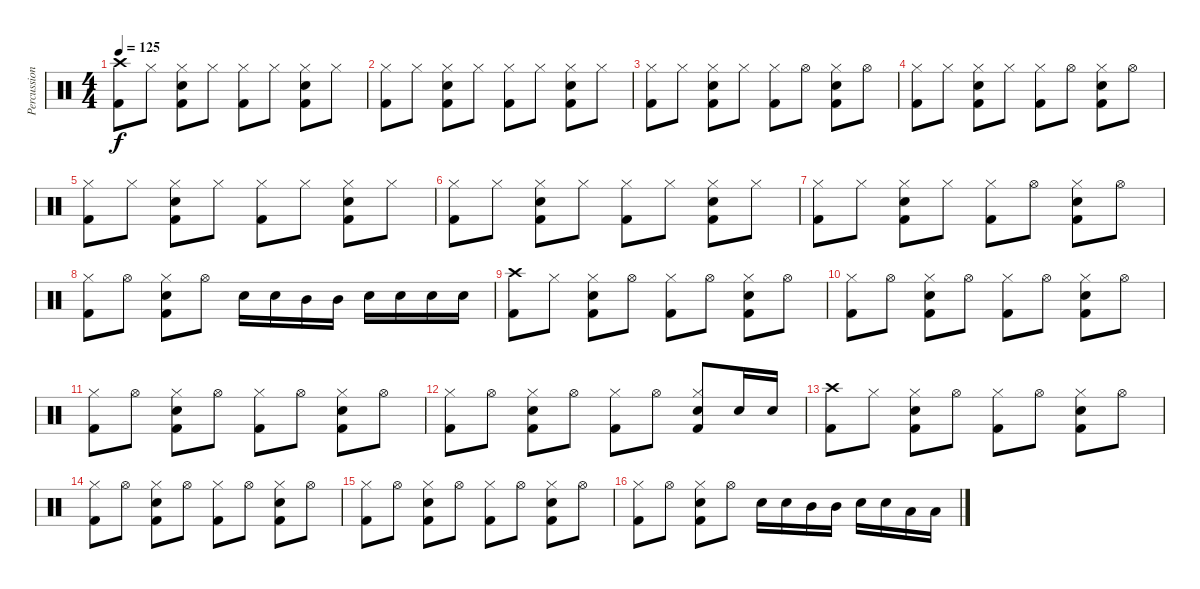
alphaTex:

\track ("Percussion" "Percussion") {instrument percussion}
\staff {score}
\articulation defaults
\ts (4 4)
\tempo 125
\clef neutral
\ks c
("Crash high (hit)" "Kick (hit) 2").8{txt "" dy f} "Hi-Hat (closed)".8 ("Hi-Hat (closed)" "Electric Snare (hit)" "Kick (hit) 2").8 "Hi-Hat (closed)".8 ("Hi-Hat (closed)" "Kick (hit) 2").8 "Hi-Hat (closed)".8 ("Hi-Hat (closed)" "Electric Snare (hit)" "Kick (hit) 2").8 "Hi-Hat (closed)".8 |
("Hi-Hat (closed)" "Kick (hit) 2").8 "Hi-Hat (closed)".8 ("Hi-Hat (closed)" "Electric Snare (hit)" "Kick (hit) 2").8 "Hi-Hat (closed)".8 ("Hi-Hat (closed)" "Kick (hit) 2").8 "Hi-Hat (closed)".8 ("Hi-Hat (closed)" "Electric Snare (hit)" "Kick (hit) 2").8 "Hi-Hat (closed)".8 |
("Hi-Hat (closed)" "Kick (hit) 2").8 "Hi-Hat (closed)".8 ("Hi-Hat (closed)" "Electric Snare (hit)" "Kick (hit) 2").8 "Hi-Hat (closed)".8 ("Hi-Hat (closed)" "Kick (hit) 2").8 "Hi-Hat (open)".8 ("Hi-Hat (closed)" "Electric Snare (hit)" "Kick (hit) 2").8 "Hi-Hat (open)".8 |
("Hi-Hat (closed)" "Kick (hit) 2").8 "Hi-Hat (closed)".8 ("Hi-Hat (closed)" "Electric Snare (hit)" "Kick (hit) 2").8 "Hi-Hat (closed)".8 ("Hi-Hat (closed)" "Kick (hit) 2").8 "Hi-Hat (open)".8 ("Hi-Hat (closed)" "Electric Snare (hit)" "Kick (hit) 2").8 "Hi-Hat (open)".8 |
("Hi-Hat (closed)" "Kick (hit) 2").8 "Hi-Hat (closed)".8 ("Hi-Hat (closed)" "Electric Snare (hit)" "Kick (hit) 2").8 "Hi-Hat (closed)".8 ("Hi-Hat (closed)" "Kick (hit) 2").8 "Hi-Hat (closed)".8 ("Hi-Hat (closed)" "Electric Snare (hit)" "Kick (hit) 2").8 "Hi-Hat (closed)".8 |
("Hi-Hat (closed)" "Kick (hit) 2").8 "Hi-Hat (closed)".8 ("Hi-Hat (closed)" "Electric Snare (hit)" "Kick (hit) 2").8 "Hi-Hat (closed)".8 ("Hi-Hat (closed)" "Kick (hit) 2").8 "Hi-Hat (closed)".8 ("Hi-Hat (closed)" "Electric Snare (hit)" "Kick (hit) 2").8 "Hi-Hat (closed)".8 |
("Hi-Hat (closed)" "Kick (hit) 2").8 "Hi-Hat (closed)".8 ("Hi-Hat (closed)" "Electric Snare (hit)" "Kick (hit) 2").8 "Hi-Hat (closed)".8 ("Hi-Hat (closed)" "Kick (hit) 2").8 "Hi-Hat (open)".8 ("Hi-Hat (closed)" "Electric Snare (hit)" "Kick (hit) 2").8 "Hi-Hat (open)".8 |
("Hi-Hat (closed)" "Kick (hit) 2").8 "Hi-Hat (open)".8 ("Hi-Hat (closed)" "Electric Snare (hit)" "Kick (hit) 2").8 "Hi-Hat (open)".8 "Electric Snare (hit)".16 "Electric Snare (hit)".16 "Mid Tom (hit)".16 "Mid Tom (hit)".16 "Electric Snare (hit)".16 "Electric Snare (hit)".16 "Electric Snare (hit)".16 "Electric Snare (hit)".16 |
("Crash high (hit)" "Kick (hit) 2").8{txt ""} "Hi-Hat (closed)".8 ("Hi-Hat (closed)" "Electric Snare (hit)" "Kick (hit) 2").8 "Hi-Hat (open)".8 ("Hi-Hat (closed)" "Kick (hit) 2").8 "Hi-Hat (open)".8 ("Hi-Hat (closed)" "Electric Snare (hit)" "Kick (hit) 2").8 "Hi-Hat (open)".8 |
("Hi-Hat (closed)" "Kick (hit) 2").8 "Hi-Hat (open)".8 ("Hi-Hat (closed)" "Electric Snare (hit)" "Kick (hit) 2").8 "Hi-Hat (open)".8 ("Hi-Hat (closed)" "Kick (hit) 2").8 "Hi-Hat (open)".8 ("Hi-Hat (closed)" "Electric Snare (hit)" "Kick (hit) 2").8 "Hi-Hat (open)".8 |
("Hi-Hat (closed)" "Kick (hit) 2").8 "Hi-Hat (open)".8 ("Hi-Hat (closed)" "Electric Snare (hit)" "Kick (hit) 2").8 "Hi-Hat (open)".8{txt ""} ("Hi-Hat (closed)" "Kick (hit) 2").8 "Hi-Hat (open)".8 ("Hi-Hat (closed)" "Electric Snare (hit)" "Kick (hit) 2").8 "Hi-Hat (open)".8 |
("Hi-Hat (closed)" "Kick (hit) 2").8 "Hi-Hat (open)".8 ("Hi-Hat (closed)" "Electric Snare (hit)" "Kick (hit) 2").8 "Hi-Hat (open)".8 ("Hi-Hat (closed)" "Kick (hit) 2").8 "Hi-Hat (open)".8 ("Hi-Hat (closed)" "Electric Snare (hit)" "Kick (hit) 2").8 "Electric Snare (hit)".16 "Electric Snare (hit)".16 |
("Crash high (hit)" "Kick (hit) 2").8 "Hi-Hat (closed)".8 ("Hi-Hat (closed)" "Electric Snare (hit)" "Kick (hit) 2").8 "Hi-Hat (open)".8 ("Hi-Hat (closed)" "Kick (hit) 2").8 "Hi-Hat (open)".8 ("Hi-Hat (closed)" "Electric Snare (hit)" "Kick (hit) 2").8 "Hi-Hat (open)".8 |
("Hi-Hat (closed)" "Kick (hit) 2").8 "Hi-Hat (open)".8 ("Hi-Hat (closed)" "Electric Snare (hit)" "Kick (hit) 2").8 "Hi-Hat (open)".8 ("Hi-Hat (closed)" "Kick (hit) 2").8 "Hi-Hat (open)".8 ("Hi-Hat (closed)" "Electric Snare (hit)" "Kick (hit) 2").8 "Hi-Hat (open)".8 |
("Hi-Hat (closed)" "Kick (hit) 2").8 "Hi-Hat (open)".8 ("Hi-Hat (closed)" "Electric Snare (hit)" "Kick (hit) 2").8 "Hi-Hat (open)".8 ("Hi-Hat (closed)" "Kick (hit) 2").8 "Hi-Hat (open)".8 ("Hi-Hat (closed)" "Electric Snare (hit)" "Kick (hit) 2").8 "Hi-Hat (open)".8 |
("Hi-Hat (closed)" "Kick (hit) 2").8 "Hi-Hat (open)".8 ("Hi-Hat (closed)" "Electric Snare (hit)" "Kick (hit) 2").8 "Hi-Hat (open)".8 "Electric Snare (hit)".16 "Electric Snare (hit)".16 "Mid Tom (hit)".16 "Mid Tom (hit)".16 "Electric Snare (hit)".16 "Electric Snare (hit)".16 "Low Tom (hit)".16 "Low Tom (hit)".16
